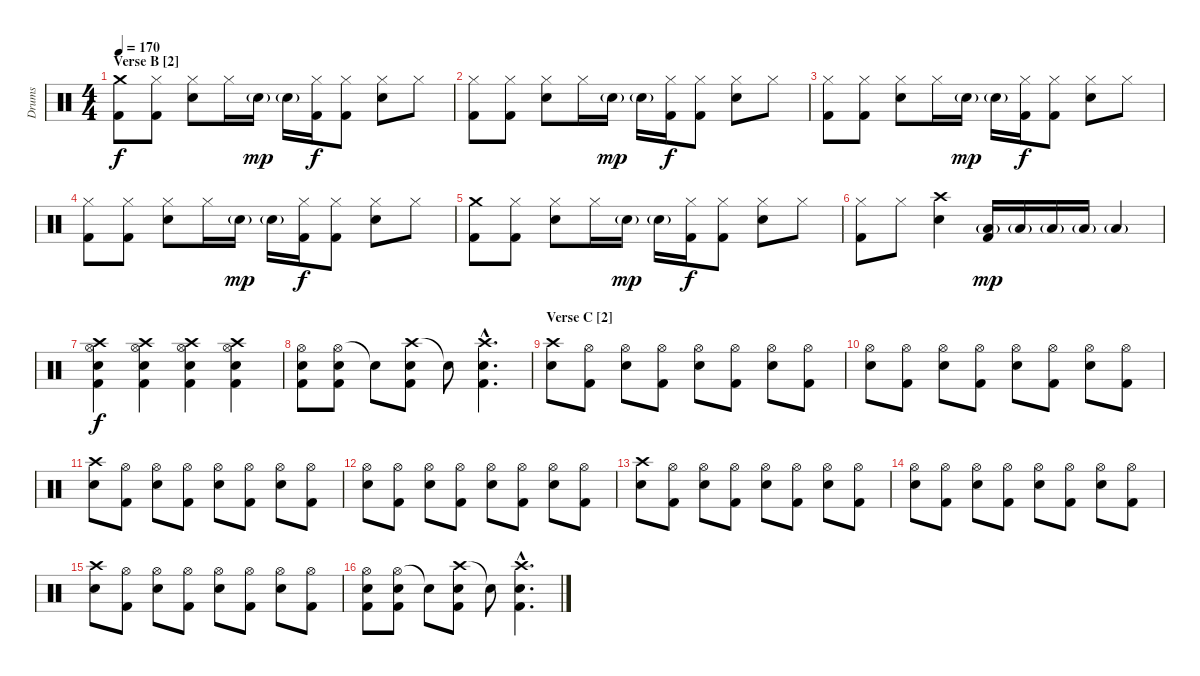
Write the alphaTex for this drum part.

\track ("Drums" "Drums") {instrument percussion}
\staff {score}
\articulation defaults
\ts (4 4)
\section ("" "Verse B [2]")
\tempo 170
\clef neutral
\ks c
("Crash medium (hit)" "Kick (hit) 2").8{dy f} ("Hi-Hat (closed)" "Kick (hit) 2").8 ("Hi-Hat (closed)" "Electric Snare (hit)").8 "Hi-Hat (closed)".16 "Electric Snare (hit)"{g}.16{dy mp} "Electric Snare (hit)"{g}.16 ("Hi-Hat (closed)" "Kick (hit) 2").16{dy f} ("Hi-Hat (closed)" "Kick (hit) 2").8 ("Hi-Hat (closed)" "Electric Snare (hit)").8 "Hi-Hat (closed)".8 |
("Hi-Hat (closed)" "Kick (hit) 2").8 ("Hi-Hat (closed)" "Kick (hit) 2").8 ("Hi-Hat (closed)" "Electric Snare (hit)").8 "Hi-Hat (closed)".16 "Electric Snare (hit)"{g}.16{dy mp} "Electric Snare (hit)"{g}.16 ("Hi-Hat (closed)" "Kick (hit) 2").16{dy f} ("Hi-Hat (closed)" "Kick (hit) 2").8 ("Hi-Hat (closed)" "Electric Snare (hit)").8 "Hi-Hat (closed)".8 |
("Hi-Hat (closed)" "Kick (hit) 2").8 ("Hi-Hat (closed)" "Kick (hit) 2").8 ("Hi-Hat (closed)" "Electric Snare (hit)").8 "Hi-Hat (closed)".16 "Electric Snare (hit)"{g}.16{dy mp} "Electric Snare (hit)"{g}.16 ("Hi-Hat (closed)" "Kick (hit) 2").16{dy f} ("Hi-Hat (closed)" "Kick (hit) 2").8 ("Hi-Hat (closed)" "Electric Snare (hit)").8 "Hi-Hat (closed)".8 |
("Hi-Hat (closed)" "Kick (hit) 2").8 ("Hi-Hat (closed)" "Kick (hit) 2").8 ("Hi-Hat (closed)" "Electric Snare (hit)").8 "Hi-Hat (closed)".16 "Electric Snare (hit)"{g}.16{dy mp} "Electric Snare (hit)"{g}.16 ("Hi-Hat (closed)" "Kick (hit) 2").16{dy f} ("Hi-Hat (closed)" "Kick (hit) 2").8 ("Hi-Hat (closed)" "Electric Snare (hit)").8 "Hi-Hat (closed)".8 |
("Crash medium (hit)" "Kick (hit) 2").8 ("Hi-Hat (closed)" "Kick (hit) 2").8 ("Hi-Hat (closed)" "Electric Snare (hit)").8 "Hi-Hat (closed)".16 "Electric Snare (hit)"{g}.16{dy mp} "Electric Snare (hit)"{g}.16 ("Hi-Hat (closed)" "Kick (hit) 2").16{dy f} ("Hi-Hat (closed)" "Kick (hit) 2").8 ("Hi-Hat (closed)" "Electric Snare (hit)").8 "Hi-Hat (closed)".8 |
("Hi-Hat (closed)" "Kick (hit) 2").8 "Hi-Hat (closed)".8 ("Crash high (hit)" "Electric Snare (hit)").4 ("Low Tom (hit)"{g} "Kick (hit) 2").16{dy mp} "Low Tom (hit)"{g}.16 "Low Tom (hit)"{g}.16 "Low Tom (hit)"{g}.16 "Low Tom (hit)"{g}.4 |
("Hi-Hat (open)" "Crash high (hit)" "Electric Snare (hit)" "Kick (hit) 2").4{dy f} ("Hi-Hat (open)" "Crash high (hit)" "Electric Snare (hit)" "Kick (hit) 2").4 ("Hi-Hat (open)" "Crash high (hit)" "Electric Snare (hit)" "Kick (hit) 2").4 ("Hi-Hat (open)" "Crash high (hit)" "Electric Snare (hit)" "Kick (hit) 2").4 |
("Hi-Hat (open)" "Electric Snare (hit)" "Kick (hit) 2").8 ("Hi-Hat (open)" "Electric Snare (hit)" "Kick (hit) 2").8 "Snare (hit)"{t}.8 ("Crash high (hit)" "Electric Snare (hit)" "Kick (hit) 2").8 "Snare (hit)"{t}.8 ("Crash high (hit)"{hac} "Electric Snare (hit)"{hac} "Kick (hit) 2"{hac}).4{d} |
\section ("" "Verse C [2]")
("Crash high (hit)" "Electric Snare (hit)").8 ("Hi-Hat (open)" "Kick (hit) 2").8 ("Hi-Hat (open)" "Electric Snare (hit)").8 ("Hi-Hat (open)" "Kick (hit) 2").8 ("Hi-Hat (open)" "Electric Snare (hit)").8 ("Hi-Hat (open)" "Kick (hit) 2").8 ("Hi-Hat (open)" "Electric Snare (hit)").8 ("Hi-Hat (open)" "Kick (hit) 2").8 |
("Hi-Hat (open)" "Electric Snare (hit)").8 ("Hi-Hat (open)" "Kick (hit) 2").8 ("Hi-Hat (open)" "Electric Snare (hit)").8 ("Hi-Hat (open)" "Kick (hit) 2").8 ("Hi-Hat (open)" "Electric Snare (hit)").8 ("Hi-Hat (open)" "Kick (hit) 2").8 ("Hi-Hat (open)" "Electric Snare (hit)").8 ("Hi-Hat (open)" "Kick (hit) 2").8 |
("Crash high (hit)" "Electric Snare (hit)").8 ("Hi-Hat (open)" "Kick (hit) 2").8 ("Hi-Hat (open)" "Electric Snare (hit)").8 ("Hi-Hat (open)" "Kick (hit) 2").8 ("Hi-Hat (open)" "Electric Snare (hit)").8 ("Hi-Hat (open)" "Kick (hit) 2").8 ("Hi-Hat (open)" "Electric Snare (hit)").8 ("Hi-Hat (open)" "Kick (hit) 2").8 |
("Hi-Hat (open)" "Electric Snare (hit)").8 ("Hi-Hat (open)" "Kick (hit) 2").8 ("Hi-Hat (open)" "Electric Snare (hit)").8 ("Hi-Hat (open)" "Kick (hit) 2").8 ("Hi-Hat (open)" "Electric Snare (hit)").8 ("Hi-Hat (open)" "Kick (hit) 2").8 ("Hi-Hat (open)" "Electric Snare (hit)").8 ("Hi-Hat (open)" "Kick (hit) 2").8 |
("Crash high (hit)" "Electric Snare (hit)").8 ("Hi-Hat (open)" "Kick (hit) 2").8 ("Hi-Hat (open)" "Electric Snare (hit)").8 ("Hi-Hat (open)" "Kick (hit) 2").8 ("Hi-Hat (open)" "Electric Snare (hit)").8 ("Hi-Hat (open)" "Kick (hit) 2").8 ("Hi-Hat (open)" "Electric Snare (hit)").8 ("Hi-Hat (open)" "Kick (hit) 2").8 |
("Hi-Hat (open)" "Electric Snare (hit)").8 ("Hi-Hat (open)" "Kick (hit) 2").8 ("Hi-Hat (open)" "Electric Snare (hit)").8 ("Hi-Hat (open)" "Kick (hit) 2").8 ("Hi-Hat (open)" "Electric Snare (hit)").8 ("Hi-Hat (open)" "Kick (hit) 2").8 ("Hi-Hat (open)" "Electric Snare (hit)").8 ("Hi-Hat (open)" "Kick (hit) 2").8 |
("Crash high (hit)" "Electric Snare (hit)").8 ("Hi-Hat (open)" "Kick (hit) 2").8 ("Hi-Hat (open)" "Electric Snare (hit)").8 ("Hi-Hat (open)" "Kick (hit) 2").8 ("Hi-Hat (open)" "Electric Snare (hit)").8 ("Hi-Hat (open)" "Kick (hit) 2").8 ("Hi-Hat (open)" "Electric Snare (hit)").8 ("Hi-Hat (open)" "Kick (hit) 2").8 |
("Hi-Hat (open)" "Electric Snare (hit)" "Kick (hit) 2").8 ("Hi-Hat (open)" "Electric Snare (hit)" "Kick (hit) 2").8 "Snare (hit)"{t}.8 ("Crash high (hit)" "Electric Snare (hit)" "Kick (hit) 2").8 "Snare (hit)"{t}.8 ("Crash high (hit)"{hac} "Electric Snare (hit)"{hac} "Kick (hit) 2"{hac}).4{d}
